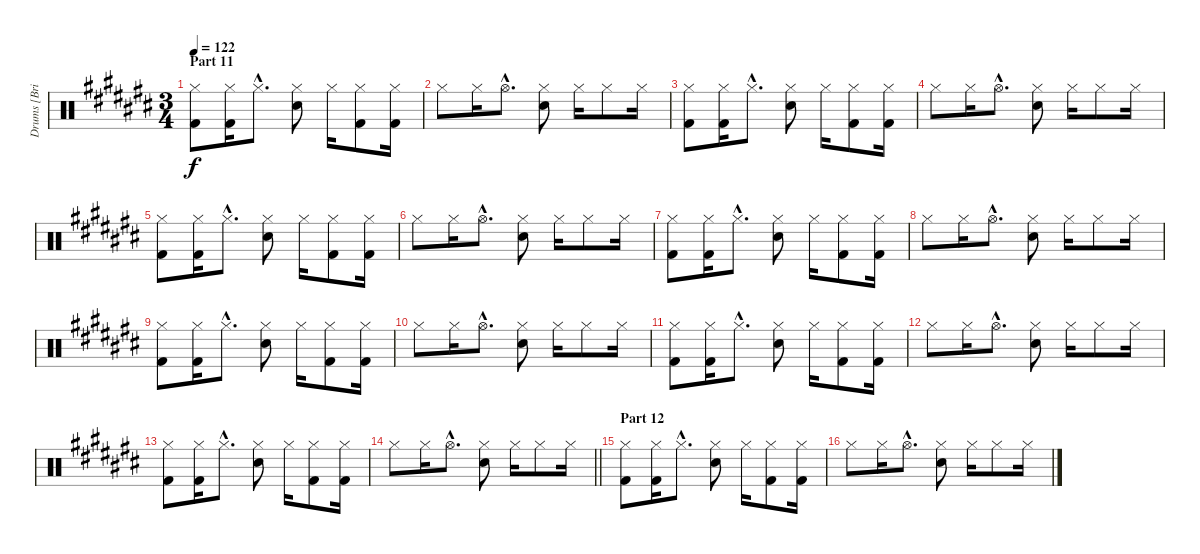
\track ("Drums [Brian \"Brain\" Mantia]" "Drums [Bri") {instrument percussion}
\staff {score}
\articulation defaults
\ts (3 4)
\section ("" "Part 11")
\tempo 122
\clef neutral
\ks c#
("Hi-Hat (closed)" "Kick (hit) 2").8{dy f} ("Hi-Hat (closed)" "Kick (hit) 2").16 "Hi-Hat (closed)"{hac}.8{d} ("Hi-Hat (closed)" "Electric Snare (hit)").8 "Hi-Hat (closed)".16 ("Hi-Hat (closed)" "Kick (hit) 2").8 ("Hi-Hat (closed)" "Kick (hit) 2").16 |
"Hi-Hat (closed)".8 "Hi-Hat (closed)".16 "Hi-Hat (open)"{hac}.8{d} ("Hi-Hat (closed)" "Electric Snare (hit)").8 "Hi-Hat (closed)".16 "Hi-Hat (closed)".8 "Hi-Hat (closed)".16 |
("Hi-Hat (closed)" "Kick (hit) 2").8 ("Hi-Hat (closed)" "Kick (hit) 2").16 "Hi-Hat (closed)"{hac}.8{d} ("Hi-Hat (closed)" "Electric Snare (hit)").8 "Hi-Hat (closed)".16 ("Hi-Hat (closed)" "Kick (hit) 2").8 ("Hi-Hat (closed)" "Kick (hit) 2").16 |
"Hi-Hat (closed)".8 "Hi-Hat (closed)".16 "Hi-Hat (open)"{hac}.8{d} ("Hi-Hat (closed)" "Electric Snare (hit)").8 "Hi-Hat (closed)".16 "Hi-Hat (closed)".8 "Hi-Hat (closed)".16 |
("Hi-Hat (closed)" "Kick (hit) 2").8 ("Hi-Hat (closed)" "Kick (hit) 2").16 "Hi-Hat (closed)"{hac}.8{d} ("Hi-Hat (closed)" "Electric Snare (hit)").8 "Hi-Hat (closed)".16 ("Hi-Hat (closed)" "Kick (hit) 2").8 ("Hi-Hat (closed)" "Kick (hit) 2").16 |
"Hi-Hat (closed)".8 "Hi-Hat (closed)".16 "Hi-Hat (open)"{hac}.8{d} ("Hi-Hat (closed)" "Electric Snare (hit)").8 "Hi-Hat (closed)".16 "Hi-Hat (closed)".8 "Hi-Hat (closed)".16 |
("Hi-Hat (closed)" "Kick (hit) 2").8 ("Hi-Hat (closed)" "Kick (hit) 2").16 "Hi-Hat (closed)"{hac}.8{d} ("Hi-Hat (closed)" "Electric Snare (hit)").8 "Hi-Hat (closed)".16 ("Hi-Hat (closed)" "Kick (hit) 2").8 ("Hi-Hat (closed)" "Kick (hit) 2").16 |
"Hi-Hat (closed)".8 "Hi-Hat (closed)".16 "Hi-Hat (open)"{hac}.8{d} ("Hi-Hat (closed)" "Electric Snare (hit)").8 "Hi-Hat (closed)".16 "Hi-Hat (closed)".8 "Hi-Hat (closed)".16 |
("Hi-Hat (closed)" "Kick (hit) 2").8 ("Hi-Hat (closed)" "Kick (hit) 2").16 "Hi-Hat (closed)"{hac}.8{d} ("Hi-Hat (closed)" "Electric Snare (hit)").8 "Hi-Hat (closed)".16 ("Hi-Hat (closed)" "Kick (hit) 2").8 ("Hi-Hat (closed)" "Kick (hit) 2").16 |
"Hi-Hat (closed)".8 "Hi-Hat (closed)".16 "Hi-Hat (open)"{hac}.8{d} ("Hi-Hat (closed)" "Electric Snare (hit)").8 "Hi-Hat (closed)".16 "Hi-Hat (closed)".8 "Hi-Hat (closed)".16 |
("Hi-Hat (closed)" "Kick (hit) 2").8 ("Hi-Hat (closed)" "Kick (hit) 2").16 "Hi-Hat (closed)"{hac}.8{d} ("Hi-Hat (closed)" "Electric Snare (hit)").8 "Hi-Hat (closed)".16 ("Hi-Hat (closed)" "Kick (hit) 2").8 ("Hi-Hat (closed)" "Kick (hit) 2").16 |
"Hi-Hat (closed)".8 "Hi-Hat (closed)".16 "Hi-Hat (open)"{hac}.8{d} ("Hi-Hat (closed)" "Electric Snare (hit)").8 "Hi-Hat (closed)".16 "Hi-Hat (closed)".8 "Hi-Hat (closed)".16 |
("Hi-Hat (closed)" "Kick (hit) 2").8 ("Hi-Hat (closed)" "Kick (hit) 2").16 "Hi-Hat (closed)"{hac}.8{d} ("Hi-Hat (closed)" "Electric Snare (hit)").8 "Hi-Hat (closed)".16 ("Hi-Hat (closed)" "Kick (hit) 2").8 ("Hi-Hat (closed)" "Kick (hit) 2").16 |
\barLineRight lightlight "Hi-Hat (closed)".8 "Hi-Hat (closed)".16 "Hi-Hat (open)"{hac}.8{d}
("Hi-Hat (closed)" "Electric Snare (hit)").8 "Hi-Hat (closed)".16 "Hi-Hat (closed)".8 "Hi-Hat (closed)".16 |
\section ("" "Part 12")
("Hi-Hat (closed)" "Kick (hit) 2").8 ("Hi-Hat (closed)" "Kick (hit) 2").16 "Hi-Hat (closed)"{hac}.8{d} ("Hi-Hat (closed)" "Electric Snare (hit)").8 "Hi-Hat (closed)".16 ("Hi-Hat (closed)" "Kick (hit) 2").8 ("Hi-Hat (closed)" "Kick (hit) 2").16 |
"Hi-Hat (closed)".8 "Hi-Hat (closed)".16 "Hi-Hat (open)"{hac}.8{d} ("Hi-Hat (closed)" "Electric Snare (hit)").8 "Hi-Hat (closed)".16 "Hi-Hat (closed)".8 "Hi-Hat (closed)".16
